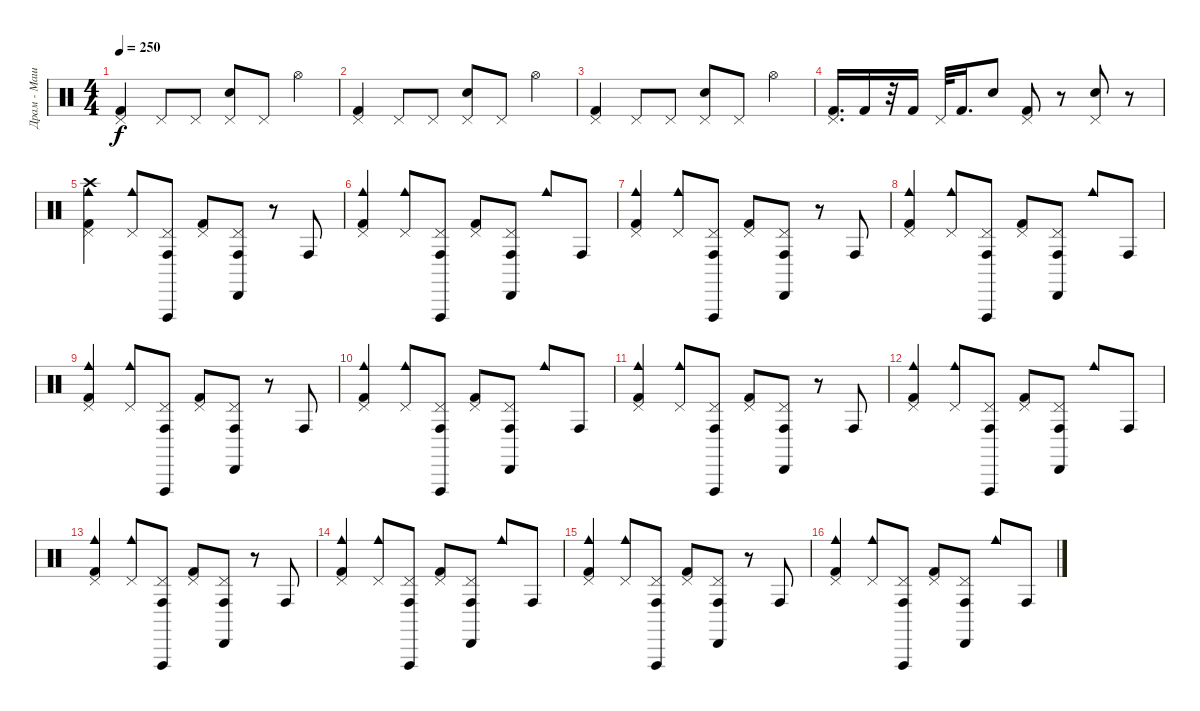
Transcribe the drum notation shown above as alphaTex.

\track ("Драм - Машина" "Драм - Маш") {instrument percussion}
\staff {score}
\articulation defaults
\ts (4 4)
\tempo 250
\clef neutral
\ks c
("Pedal Hi-Hat (hit)" "Kick (hit) 2").4{dy f} "Pedal Hi-Hat (hit)".8 "Pedal Hi-Hat (hit)".8 ("Pedal Hi-Hat (hit)" "Snare (hit) 2").8 "Pedal Hi-Hat (hit)".8 "Hi-Hat (open)".4 |
("Pedal Hi-Hat (hit)" "Kick (hit) 2").4 "Pedal Hi-Hat (hit)".8 "Pedal Hi-Hat (hit)".8 ("Pedal Hi-Hat (hit)" "Snare (hit) 2").8 "Pedal Hi-Hat (hit)".8 "Hi-Hat (open)".4 |
("Pedal Hi-Hat (hit)" "Kick (hit) 2").4 "Pedal Hi-Hat (hit)".8 "Pedal Hi-Hat (hit)".8 ("Pedal Hi-Hat (hit)" "Snare (hit) 2").8 "Pedal Hi-Hat (hit)".8 "Hi-Hat (open)".4 |
("Kick (hit) 2" "Pedal Hi-Hat (hit)").16{d} "Kick (hit) 2".16 r.32 "Kick (hit) 2".16 "Pedal Hi-Hat (hit)".32 "Kick (hit) 2".16{d} "Snare (hit) 2".8 ("Kick (hit) 2" "Pedal Hi-Hat (hit)").8 r.8 ("Snare (hit) 2" "Pedal Hi-Hat (hit)").8 r.8 |
("Cowbell medium (hit)" "Crash high (hit)" "Pedal Hi-Hat (hit)" "Kick (hit) 2").4 ("Cowbell medium (hit)" "Pedal Hi-Hat (hit)").8 ("Conga high (hit)" "Vibraslap (hit)" "Pedal Hi-Hat (hit)").8 ("Pedal Hi-Hat (hit)" "Kick (hit) 2").8 ("Cabasa (hit)" "Conga high (hit)" "Pedal Hi-Hat (hit)").8 r.8 "Conga high (hit)".8 |
("Cowbell medium (hit)" "Pedal Hi-Hat (hit)" "Kick (hit) 2").4 ("Cowbell medium (hit)" "Pedal Hi-Hat (hit)").8 ("Conga high (hit)" "Vibraslap (hit)" "Pedal Hi-Hat (hit)").8 ("Pedal Hi-Hat (hit)" "Kick (hit) 2").8 ("Cabasa (hit)" "Conga high (hit)" "Pedal Hi-Hat (hit)").8 "Cowbell medium (hit)".8 "Conga high (hit)".8 |
("Cowbell medium (hit)" "Pedal Hi-Hat (hit)" "Kick (hit) 2").4 ("Cowbell medium (hit)" "Pedal Hi-Hat (hit)").8 ("Conga high (hit)" "Vibraslap (hit)" "Pedal Hi-Hat (hit)").8 ("Pedal Hi-Hat (hit)" "Kick (hit) 2").8 ("Cabasa (hit)" "Conga high (hit)" "Pedal Hi-Hat (hit)").8 r.8 "Conga high (hit)".8 |
("Cowbell medium (hit)" "Pedal Hi-Hat (hit)" "Kick (hit) 2").4 ("Cowbell medium (hit)" "Pedal Hi-Hat (hit)").8 ("Conga high (hit)" "Vibraslap (hit)" "Pedal Hi-Hat (hit)").8 ("Pedal Hi-Hat (hit)" "Kick (hit) 2").8 ("Cabasa (hit)" "Conga high (hit)" "Pedal Hi-Hat (hit)").8 "Cowbell medium (hit)".8 "Conga high (hit)".8 |
("Cowbell medium (hit)" "Pedal Hi-Hat (hit)" "Kick (hit) 2").4 ("Cowbell medium (hit)" "Pedal Hi-Hat (hit)").8 ("Conga high (hit)" "Vibraslap (hit)" "Pedal Hi-Hat (hit)").8 ("Pedal Hi-Hat (hit)" "Kick (hit) 2").8 ("Cabasa (hit)" "Conga high (hit)" "Pedal Hi-Hat (hit)").8 r.8 "Conga high (hit)".8 |
("Cowbell medium (hit)" "Pedal Hi-Hat (hit)" "Kick (hit) 2").4 ("Cowbell medium (hit)" "Pedal Hi-Hat (hit)").8 ("Conga high (hit)" "Vibraslap (hit)" "Pedal Hi-Hat (hit)").8 ("Pedal Hi-Hat (hit)" "Kick (hit) 2").8 ("Cabasa (hit)" "Conga high (hit)" "Pedal Hi-Hat (hit)").8 "Cowbell medium (hit)".8 "Conga high (hit)".8 |
("Cowbell medium (hit)" "Pedal Hi-Hat (hit)" "Kick (hit) 2").4 ("Cowbell medium (hit)" "Pedal Hi-Hat (hit)").8 ("Conga high (hit)" "Vibraslap (hit)" "Pedal Hi-Hat (hit)").8 ("Pedal Hi-Hat (hit)" "Kick (hit) 2").8 ("Cabasa (hit)" "Conga high (hit)" "Pedal Hi-Hat (hit)").8 r.8 "Conga high (hit)".8 |
("Cowbell medium (hit)" "Pedal Hi-Hat (hit)" "Kick (hit) 2").4 ("Cowbell medium (hit)" "Pedal Hi-Hat (hit)").8 ("Conga high (hit)" "Vibraslap (hit)" "Pedal Hi-Hat (hit)").8 ("Pedal Hi-Hat (hit)" "Kick (hit) 2").8 ("Cabasa (hit)" "Conga high (hit)" "Pedal Hi-Hat (hit)").8 "Cowbell medium (hit)".8 "Conga high (hit)".8 |
("Cowbell medium (hit)" "Pedal Hi-Hat (hit)" "Kick (hit) 2").4 ("Cowbell medium (hit)" "Pedal Hi-Hat (hit)").8 ("Conga high (hit)" "Vibraslap (hit)" "Pedal Hi-Hat (hit)").8 ("Pedal Hi-Hat (hit)" "Kick (hit) 2").8 ("Cabasa (hit)" "Conga high (hit)" "Pedal Hi-Hat (hit)").8 r.8 "Conga high (hit)".8 |
("Cowbell medium (hit)" "Pedal Hi-Hat (hit)" "Kick (hit) 2").4 ("Cowbell medium (hit)" "Pedal Hi-Hat (hit)").8 ("Conga high (hit)" "Vibraslap (hit)" "Pedal Hi-Hat (hit)").8 ("Pedal Hi-Hat (hit)" "Kick (hit) 2").8 ("Cabasa (hit)" "Conga high (hit)" "Pedal Hi-Hat (hit)").8 "Cowbell medium (hit)".8 "Conga high (hit)".8 |
("Cowbell medium (hit)" "Pedal Hi-Hat (hit)" "Kick (hit) 2").4 ("Cowbell medium (hit)" "Pedal Hi-Hat (hit)").8 ("Conga high (hit)" "Vibraslap (hit)" "Pedal Hi-Hat (hit)").8 ("Pedal Hi-Hat (hit)" "Kick (hit) 2").8 ("Cabasa (hit)" "Conga high (hit)" "Pedal Hi-Hat (hit)").8 r.8 "Conga high (hit)".8 |
("Cowbell medium (hit)" "Pedal Hi-Hat (hit)" "Kick (hit) 2").4 ("Cowbell medium (hit)" "Pedal Hi-Hat (hit)").8 ("Conga high (hit)" "Vibraslap (hit)" "Pedal Hi-Hat (hit)").8 ("Pedal Hi-Hat (hit)" "Kick (hit) 2").8 ("Cabasa (hit)" "Conga high (hit)" "Pedal Hi-Hat (hit)").8 "Cowbell medium (hit)".8 "Conga high (hit)".8
